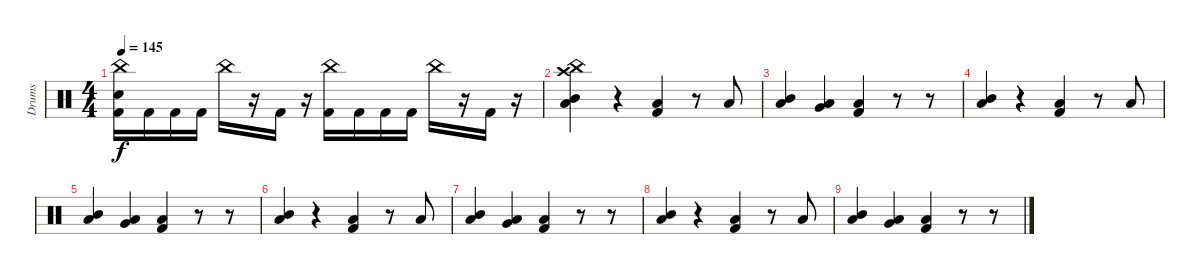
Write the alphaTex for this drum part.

\track ("Drums" "Drums") {instrument percussion}
\staff {score}
\articulation defaults
\ts (4 4)
\tempo 145
\clef neutral
\ks c
("China (hit)" "Electric Snare (hit)" "Kick (hit) 2").16{dy f} "Kick (hit) 2".16 "Kick (hit) 2".16 "Kick (hit) 2".16 "China (hit)".16 r.16 "Kick (hit) 2".16 r.16 ("China (hit)" "Kick (hit) 2").16 "Kick (hit) 2".16 "Kick (hit) 2".16 "Kick (hit) 2".16 "China (hit)".16 r.16 "Kick (hit) 2".16 r.16 |
("China (hit)" "Crash high (hit)" "Mid Tom (hit)" "Low Tom (hit)").4 r.4 ("Low Floor Tom (hit)" "Kick (hit) 2").4 r.8 "Low Tom (hit)".8 |
("Mid Tom (hit)" "Low Tom (hit)").4 ("Very Low Tom (hit)" "Low Tom (hit)").4 ("Low Floor Tom (hit)" "Kick (hit) 2").4 r.8 r.8 |
("Mid Tom (hit)" "Low Tom (hit)").4 r.4 ("Low Floor Tom (hit)" "Kick (hit) 2").4 r.8 "Low Tom (hit)".8 |
("Mid Tom (hit)" "Low Tom (hit)").4 ("Very Low Tom (hit)" "Low Tom (hit)").4 ("Low Floor Tom (hit)" "Kick (hit) 2").4 r.8 r.8 |
("Mid Tom (hit)" "Low Tom (hit)").4 r.4 ("Low Floor Tom (hit)" "Kick (hit) 2").4 r.8 "Low Tom (hit)".8 |
("Mid Tom (hit)" "Low Tom (hit)").4 ("Very Low Tom (hit)" "Low Tom (hit)").4 ("Low Floor Tom (hit)" "Kick (hit) 2").4 r.8 r.8 |
("Mid Tom (hit)" "Low Tom (hit)").4 r.4 ("Low Floor Tom (hit)" "Kick (hit) 2").4 r.8 "Low Tom (hit)".8 |
("Mid Tom (hit)" "Low Tom (hit)").4 ("Very Low Tom (hit)" "Low Tom (hit)").4 ("Low Floor Tom (hit)" "Kick (hit) 2").4 r.8 r.8
